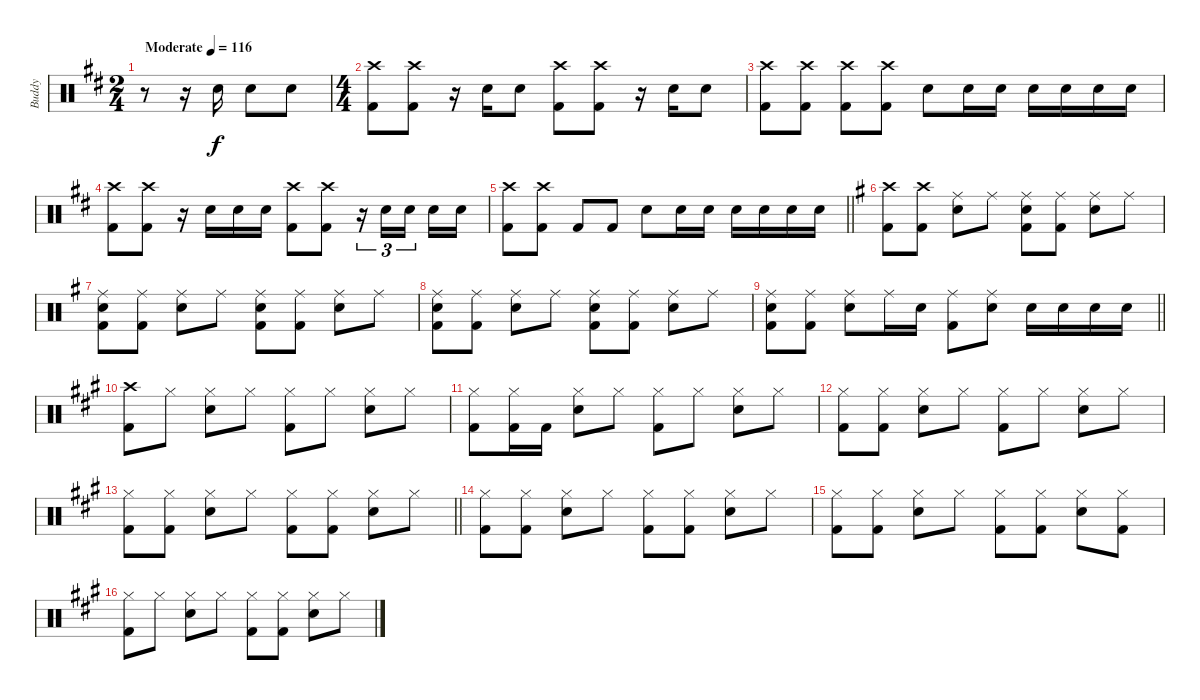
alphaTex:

\track ("Buddy" "Buddy") {instrument percussion}
\staff {score}
\articulation defaults
\ts (2 4)
\tempo (116 "Moderate")
\clef neutral
\ks d
r.8{dy f} r.16 "Snare (hit) 2".16 "Snare (hit) 2".8 "Snare (hit) 2".8 |
\ts (4 4)
("Crash high (hit)" "Kick (hit) 2").8 ("Crash high (hit)" "Kick (hit) 2").8 r.16 "Snare (hit) 2".16 "Snare (hit) 2".8 ("Crash high (hit)" "Kick (hit) 2").8 ("Crash high (hit)" "Kick (hit) 2").8 r.16 "Snare (hit) 2".16 "Snare (hit) 2".8 |
("Crash high (hit)" "Kick (hit) 2").8 ("Crash high (hit)" "Kick (hit) 2").8 ("Crash high (hit)" "Kick (hit) 2").8 ("Crash high (hit)" "Kick (hit) 2").8 "Snare (hit) 2".8 "Snare (hit) 2".16 "Snare (hit) 2".16 "Snare (hit) 2".16 "Snare (hit) 2".16 "Snare (hit) 2".16 "Snare (hit) 2".16 |
("Crash high (hit)" "Kick (hit) 2").8 ("Crash high (hit)" "Kick (hit) 2").8 r.16 "Snare (hit) 2".16 "Snare (hit) 2".16 "Snare (hit) 2".16 ("Crash high (hit)" "Kick (hit) 2").8 ("Crash high (hit)" "Kick (hit) 2").8 r.16{tu (3 2)} "Snare (hit) 2".16{tu (3 2)} "Snare (hit) 2".16{tu (3 2) beam splitsecondary} "Snare (hit) 2".16 "Snare (hit) 2".16 |
\barLineRight lightlight
("Crash high (hit)" "Kick (hit) 2").8 ("Crash high (hit)" "Kick (hit) 2").8 "Kick (hit) 2".8 "Kick (hit) 2".8 "Snare (hit) 2".8 "Snare (hit) 2".16 "Snare (hit) 2".16 "Snare (hit) 2".16 "Snare (hit) 2".16 "Snare (hit) 2".16 "Snare (hit) 2".16 |
\ks eminor
("Crash high (hit)" "Kick (hit) 2").8 ("Crash high (hit)" "Kick (hit) 2").8 ("Ride (middle)" "Snare (hit) 2").8 "Ride (middle)".8 ("Ride (middle)" "Snare (hit) 2" "Kick (hit) 2").8 ("Ride (middle)" "Kick (hit) 2").8 ("Ride (middle)" "Snare (hit) 2").8 "Ride (middle)".8 |
\ks g
("Ride (middle)" "Snare (hit) 2" "Kick (hit) 2").8 ("Ride (middle)" "Kick (hit) 2").8 ("Ride (middle)" "Snare (hit) 2").8 "Ride (middle)".8 ("Ride (middle)" "Snare (hit) 2" "Kick (hit) 2").8 ("Ride (middle)" "Kick (hit) 2").8 ("Ride (middle)" "Snare (hit) 2").8 "Ride (middle)".8 |
("Ride (middle)" "Snare (hit) 2" "Kick (hit) 2").8 ("Ride (middle)" "Kick (hit) 2").8 ("Ride (middle)" "Snare (hit) 2").8 "Ride (middle)".8 ("Ride (middle)" "Snare (hit) 2" "Kick (hit) 2").8 ("Ride (middle)" "Kick (hit) 2").8 ("Ride (middle)" "Snare (hit) 2").8 "Ride (middle)".8 |
\barLineRight lightlight
("Ride (middle)" "Snare (hit) 2" "Kick (hit) 2").8 ("Ride (middle)" "Kick (hit) 2").8 ("Ride (middle)" "Snare (hit) 2").8 "Ride (middle)".16 "Snare (hit) 2".16 ("Ride (middle)" "Kick (hit) 2").8 ("Ride (middle)" "Snare (hit) 2").8 "Snare (hit) 2".16 "Snare (hit) 2".16 "Snare (hit) 2".16 "Snare (hit) 2".16 |
\ks a
("Crash high (hit)" "Kick (hit) 2").8 "Hi-Hat (closed)".8 ("Hi-Hat (closed)" "Snare (hit) 2").8 "Hi-Hat (closed)".8 ("Hi-Hat (closed)" "Kick (hit) 2").8 "Hi-Hat (closed)".8 ("Hi-Hat (closed)" "Snare (hit) 2").8 "Hi-Hat (closed)".8 |
("Hi-Hat (closed)" "Kick (hit) 2").8 ("Hi-Hat (closed)" "Kick (hit) 2").16 "Kick (hit) 2".16 ("Hi-Hat (closed)" "Snare (hit) 2").8 "Hi-Hat (closed)".8 ("Hi-Hat (closed)" "Kick (hit) 2").8 "Hi-Hat (closed)".8 ("Hi-Hat (closed)" "Snare (hit) 2").8 "Hi-Hat (closed)".8 |
("Hi-Hat (closed)" "Kick (hit) 2").8 ("Hi-Hat (closed)" "Kick (hit) 2").8 ("Hi-Hat (closed)" "Snare (hit) 2").8 "Hi-Hat (closed)".8 ("Hi-Hat (closed)" "Kick (hit) 2").8 "Hi-Hat (closed)".8 ("Hi-Hat (closed)" "Snare (hit) 2").8 "Hi-Hat (closed)".8 |
\barLineRight lightlight
("Hi-Hat (closed)" "Kick (hit) 2").8 ("Hi-Hat (closed)" "Kick (hit) 2").8 ("Hi-Hat (closed)" "Snare (hit) 2").8 "Hi-Hat (closed)".8 ("Hi-Hat (closed)" "Kick (hit) 2").8 ("Hi-Hat (closed)" "Kick (hit) 2").8 ("Hi-Hat (closed)" "Snare (hit) 2").8 "Hi-Hat (closed)".8 |
("Hi-Hat (closed)" "Kick (hit) 2").8 ("Hi-Hat (closed)" "Kick (hit) 2").8 ("Hi-Hat (closed)" "Snare (hit) 2").8 "Hi-Hat (closed)".8 ("Hi-Hat (closed)" "Kick (hit) 2").8 ("Hi-Hat (closed)" "Kick (hit) 2").8 ("Hi-Hat (closed)" "Snare (hit) 2").8 "Hi-Hat (closed)".8 |
("Hi-Hat (closed)" "Kick (hit) 2").8 ("Hi-Hat (closed)" "Kick (hit) 2").8 ("Hi-Hat (closed)" "Snare (hit) 2").8 "Hi-Hat (closed)".8 ("Hi-Hat (closed)" "Kick (hit) 2").8 ("Hi-Hat (closed)" "Kick (hit) 2").8 ("Hi-Hat (closed)" "Snare (hit) 2").8 ("Hi-Hat (closed)" "Kick (hit) 2").8 |
("Hi-Hat (closed)" "Kick (hit) 2").8 "Hi-Hat (closed)".8 ("Hi-Hat (closed)" "Snare (hit) 2").8 "Hi-Hat (closed)".8 ("Hi-Hat (closed)" "Kick (hit) 2").8 ("Hi-Hat (closed)" "Kick (hit) 2").8 ("Hi-Hat (closed)" "Snare (hit) 2").8 "Hi-Hat (closed)".8
